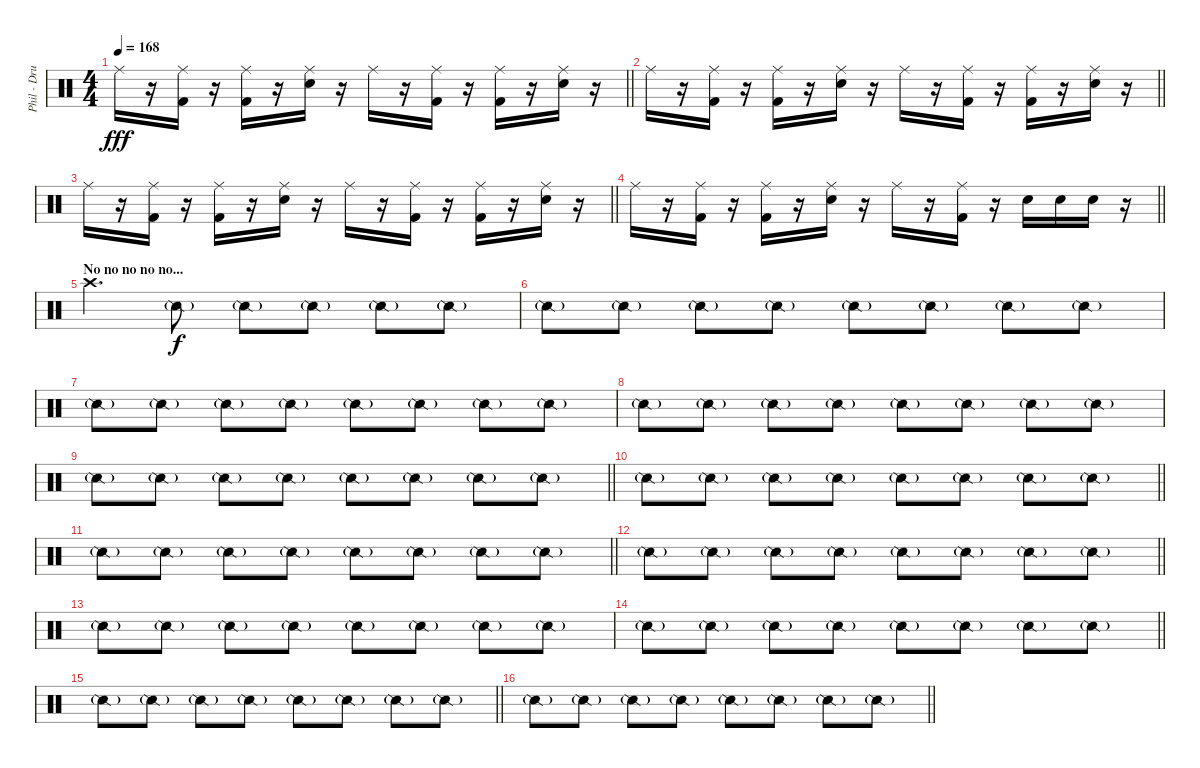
\track ("Phil - Drums" "Phil - Dru") {instrument percussion}
\staff {score}
\articulation defaults
\ts (4 4)
\tempo 168
\clef neutral
\barLineRight lightlight
\ks c "Ride (middle)".16{dy fff}
r.16 ("Ride (middle)" "Kick (hit) 2").16 r.16 ("Ride (middle)" "Kick (hit) 2").16 r.16 ("Ride (middle)" "Electric Snare (hit)").16 r.16 "Ride (middle)".16 r.16 ("Ride (middle)" "Kick (hit) 2").16 r.16 ("Ride (middle)" "Kick (hit) 2").16 r.16 ("Ride (middle)" "Electric Snare (hit)").16 r.16 |
\barLineRight lightlight "Ride (middle)".16
r.16 ("Ride (middle)" "Kick (hit) 2").16 r.16 ("Ride (middle)" "Kick (hit) 2").16 r.16 ("Ride (middle)" "Electric Snare (hit)").16 r.16 "Ride (middle)".16 r.16 ("Ride (middle)" "Kick (hit) 2").16 r.16 ("Ride (middle)" "Kick (hit) 2").16 r.16 ("Ride (middle)" "Electric Snare (hit)").16 r.16 |
\barLineRight lightlight "Ride (middle)".16
r.16 ("Ride (middle)" "Kick (hit) 2").16 r.16 ("Ride (middle)" "Kick (hit) 2").16 r.16 ("Ride (middle)" "Electric Snare (hit)").16 r.16 "Ride (middle)".16 r.16 ("Ride (middle)" "Kick (hit) 2").16 r.16 ("Ride (middle)" "Kick (hit) 2").16 r.16 ("Ride (middle)" "Electric Snare (hit)").16 r.16 |
\barLineRight lightlight "Ride (middle)".16
r.16 ("Ride (middle)" "Kick (hit) 2").16 r.16 ("Ride (middle)" "Kick (hit) 2").16 r.16 ("Ride (middle)" "Electric Snare (hit)").16 r.16 "Ride (middle)".16 r.16 ("Ride (middle)" "Kick (hit) 2").16 r.16 "Electric Snare (hit)".16 "Electric Snare (hit)".16 "Electric Snare (hit)".16 r.16 |
\section ("" "No no no no no...")
"Crash high (hit)".4{d} "Snare (side stick) 2"{g}.8{dy f} "Snare (side stick) 2"{g}.8 "Snare (side stick) 2"{g}.8 "Snare (side stick) 2"{g}.8 "Snare (side stick) 2"{g}.8 |
"Snare (side stick) 2"{g}.8 "Snare (side stick) 2"{g}.8 "Snare (side stick) 2"{g}.8 "Snare (side stick) 2"{g}.8 "Snare (side stick) 2"{g}.8 "Snare (side stick) 2"{g}.8 "Snare (side stick) 2"{g}.8 "Snare (side stick) 2"{g}.8 |
"Snare (side stick) 2"{g}.8 "Snare (side stick) 2"{g}.8 "Snare (side stick) 2"{g}.8 "Snare (side stick) 2"{g}.8 "Snare (side stick) 2"{g}.8 "Snare (side stick) 2"{g}.8 "Snare (side stick) 2"{g}.8 "Snare (side stick) 2"{g}.8 |
"Snare (side stick) 2"{g}.8 "Snare (side stick) 2"{g}.8 "Snare (side stick) 2"{g}.8 "Snare (side stick) 2"{g}.8 "Snare (side stick) 2"{g}.8 "Snare (side stick) 2"{g}.8 "Snare (side stick) 2"{g}.8 "Snare (side stick) 2"{g}.8 |
\barLineRight lightlight "Snare (side stick) 2"{g}.8 "Snare (side stick) 2"{g}.8 "Snare (side stick) 2"{g}.8 "Snare (side stick) 2"{g}.8 "Snare (side stick) 2"{g}.8 "Snare (side stick) 2"{g}.8 "Snare (side stick) 2"{g}.8 "Snare (side stick) 2"{g}.8
|
\barLineRight lightlight "Snare (side stick) 2"{g}.8 "Snare (side stick) 2"{g}.8 "Snare (side stick) 2"{g}.8 "Snare (side stick) 2"{g}.8 "Snare (side stick) 2"{g}.8 "Snare (side stick) 2"{g}.8 "Snare (side stick) 2"{g}.8 "Snare (side stick) 2"{g}.8
|
\barLineRight lightlight "Snare (side stick) 2"{g}.8 "Snare (side stick) 2"{g}.8 "Snare (side stick) 2"{g}.8 "Snare (side stick) 2"{g}.8 "Snare (side stick) 2"{g}.8 "Snare (side stick) 2"{g}.8 "Snare (side stick) 2"{g}.8 "Snare (side stick) 2"{g}.8
|
\barLineRight lightlight "Snare (side stick) 2"{g}.8 "Snare (side stick) 2"{g}.8 "Snare (side stick) 2"{g}.8 "Snare (side stick) 2"{g}.8 "Snare (side stick) 2"{g}.8 "Snare (side stick) 2"{g}.8 "Snare (side stick) 2"{g}.8 "Snare (side stick) 2"{g}.8
|
"Snare (side stick) 2"{g}.8 "Snare (side stick) 2"{g}.8 "Snare (side stick) 2"{g}.8 "Snare (side stick) 2"{g}.8 "Snare (side stick) 2"{g}.8 "Snare (side stick) 2"{g}.8 "Snare (side stick) 2"{g}.8 "Snare (side stick) 2"{g}.8 |
\barLineRight lightlight "Snare (side stick) 2"{g}.8 "Snare (side stick) 2"{g}.8 "Snare (side stick) 2"{g}.8 "Snare (side stick) 2"{g}.8 "Snare (side stick) 2"{g}.8 "Snare (side stick) 2"{g}.8 "Snare (side stick) 2"{g}.8 "Snare (side stick) 2"{g}.8
|
\barLineRight lightlight "Snare (side stick) 2"{g}.8 "Snare (side stick) 2"{g}.8 "Snare (side stick) 2"{g}.8 "Snare (side stick) 2"{g}.8 "Snare (side stick) 2"{g}.8 "Snare (side stick) 2"{g}.8 "Snare (side stick) 2"{g}.8 "Snare (side stick) 2"{g}.8
|
\barLineRight lightlight "Snare (side stick) 2"{g}.8 "Snare (side stick) 2"{g}.8 "Snare (side stick) 2"{g}.8 "Snare (side stick) 2"{g}.8 "Snare (side stick) 2"{g}.8 "Snare (side stick) 2"{g}.8 "Snare (side stick) 2"{g}.8 "Snare (side stick) 2"{g}.8
